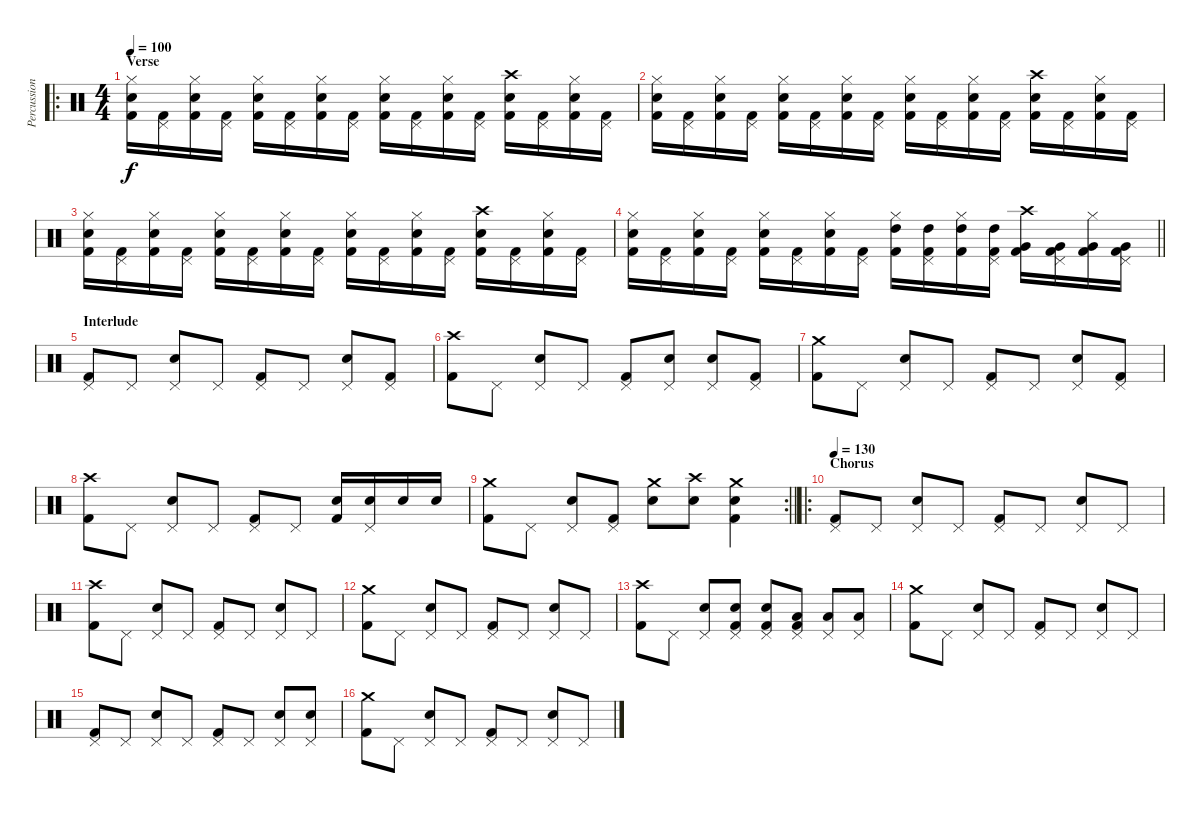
\track ("Percussion" "Percussion") {instrument percussion}
\staff {score}
\articulation defaults
\ro
\ts (4 4)
\section ("" "Verse")
\tempo 100
\clef neutral
\ks c
("Hi-Hat (closed)" "Snare (hit) 2" "Kick (hit) 2").16{dy f} ("Pedal Hi-Hat (hit)" "Kick (hit) 2").16 ("Hi-Hat (closed)" "Snare (hit) 2" "Kick (hit) 2").16 ("Pedal Hi-Hat (hit)" "Kick (hit) 2").16 ("Hi-Hat (closed)" "Snare (hit) 2" "Kick (hit) 2").16 ("Pedal Hi-Hat (hit)" "Kick (hit) 2").16 ("Hi-Hat (closed)" "Snare (hit) 2" "Kick (hit) 2").16 ("Pedal Hi-Hat (hit)" "Kick (hit) 2").16 ("Hi-Hat (closed)" "Snare (hit) 2" "Kick (hit) 2").16 ("Pedal Hi-Hat (hit)" "Kick (hit) 2").16 ("Hi-Hat (closed)" "Snare (hit) 2" "Kick (hit) 2").16 ("Pedal Hi-Hat (hit)" "Kick (hit) 2").16 ("Crash high (hit)" "Snare (hit) 2" "Kick (hit) 2").16 ("Pedal Hi-Hat (hit)" "Kick (hit) 2").16 ("Hi-Hat (closed)" "Snare (hit) 2" "Kick (hit) 2").16 ("Pedal Hi-Hat (hit)" "Kick (hit) 2").16 |
("Hi-Hat (closed)" "Snare (hit) 2" "Kick (hit) 2").16 ("Pedal Hi-Hat (hit)" "Kick (hit) 2").16 ("Hi-Hat (closed)" "Snare (hit) 2" "Kick (hit) 2").16 ("Pedal Hi-Hat (hit)" "Kick (hit) 2").16 ("Hi-Hat (closed)" "Snare (hit) 2" "Kick (hit) 2").16 ("Pedal Hi-Hat (hit)" "Kick (hit) 2").16 ("Hi-Hat (closed)" "Snare (hit) 2" "Kick (hit) 2").16 ("Pedal Hi-Hat (hit)" "Kick (hit) 2").16 ("Hi-Hat (closed)" "Snare (hit) 2" "Kick (hit) 2").16 ("Pedal Hi-Hat (hit)" "Kick (hit) 2").16 ("Hi-Hat (closed)" "Snare (hit) 2" "Kick (hit) 2").16 ("Pedal Hi-Hat (hit)" "Kick (hit) 2").16 ("Crash high (hit)" "Snare (hit) 2" "Kick (hit) 2").16 ("Pedal Hi-Hat (hit)" "Kick (hit) 2").16 ("Hi-Hat (closed)" "Snare (hit) 2" "Kick (hit) 2").16 ("Pedal Hi-Hat (hit)" "Kick (hit) 2").16 |
("Hi-Hat (closed)" "Snare (hit) 2" "Kick (hit) 2").16 ("Pedal Hi-Hat (hit)" "Kick (hit) 2").16 ("Hi-Hat (closed)" "Snare (hit) 2" "Kick (hit) 2").16 ("Pedal Hi-Hat (hit)" "Kick (hit) 2").16 ("Hi-Hat (closed)" "Snare (hit) 2" "Kick (hit) 2").16 ("Pedal Hi-Hat (hit)" "Kick (hit) 2").16 ("Hi-Hat (closed)" "Snare (hit) 2" "Kick (hit) 2").16 ("Pedal Hi-Hat (hit)" "Kick (hit) 2").16 ("Hi-Hat (closed)" "Snare (hit) 2" "Kick (hit) 2").16 ("Pedal Hi-Hat (hit)" "Kick (hit) 2").16 ("Hi-Hat (closed)" "Snare (hit) 2" "Kick (hit) 2").16 ("Pedal Hi-Hat (hit)" "Kick (hit) 2").16 ("Crash high (hit)" "Snare (hit) 2" "Kick (hit) 2").16 ("Pedal Hi-Hat (hit)" "Kick (hit) 2").16 ("Hi-Hat (closed)" "Snare (hit) 2" "Kick (hit) 2").16 ("Pedal Hi-Hat (hit)" "Kick (hit) 2").16 |
\barLineRight lightlight
("Hi-Hat (closed)" "Snare (hit) 2" "Kick (hit) 2").16 ("Pedal Hi-Hat (hit)" "Kick (hit) 2").16 ("Hi-Hat (closed)" "Snare (hit) 2" "Kick (hit) 2").16 ("Pedal Hi-Hat (hit)" "Kick (hit) 2").16 ("Hi-Hat (closed)" "Snare (hit) 2" "Kick (hit) 2").16 ("Pedal Hi-Hat (hit)" "Kick (hit) 2").16 ("Hi-Hat (closed)" "Snare (hit) 2" "Kick (hit) 2").16 ("Pedal Hi-Hat (hit)" "Kick (hit) 2").16 ("Hi-Hat (closed)" "High Tom (hit)" "Kick (hit) 2").16 ("Pedal Hi-Hat (hit)" "High Tom (hit)" "Kick (hit) 2").16 ("Hi-Hat (closed)" "High Tom (hit)" "Kick (hit) 2").16 ("Pedal Hi-Hat (hit)" "High Tom (hit)" "Kick (hit) 2").16 ("Crash high (hit)" "Very Low Tom (hit)" "Kick (hit) 2").16 ("Pedal Hi-Hat (hit)" "Very Low Tom (hit)" "Kick (hit) 2").16 ("Hi-Hat (closed)" "Very Low Tom (hit)" "Kick (hit) 2").16 ("Pedal Hi-Hat (hit)" "Very Low Tom (hit)" "Kick (hit) 2").16 |
\section ("" "Interlude")
("Pedal Hi-Hat (hit)" "Kick (hit) 2").8 "Pedal Hi-Hat (hit)".8 ("Pedal Hi-Hat (hit)" "Snare (hit) 2").8 "Pedal Hi-Hat (hit)".8 ("Pedal Hi-Hat (hit)" "Kick (hit) 2").8 "Pedal Hi-Hat (hit)".8 ("Pedal Hi-Hat (hit)" "Snare (hit) 2").8 ("Pedal Hi-Hat (hit)" "Kick (hit) 2").8 |
("Crash high (hit)" "Kick (hit) 2").8 "Pedal Hi-Hat (hit)".8 ("Pedal Hi-Hat (hit)" "Snare (hit) 2").8 "Pedal Hi-Hat (hit)".8 ("Pedal Hi-Hat (hit)" "Kick (hit) 2").8 ("Pedal Hi-Hat (hit)" "Snare (hit) 2").8 ("Pedal Hi-Hat (hit)" "Snare (hit) 2").8 ("Pedal Hi-Hat (hit)" "Kick (hit) 2").8 |
("Crash medium (hit)" "Kick (hit) 2").8 "Pedal Hi-Hat (hit)".8 ("Pedal Hi-Hat (hit)" "Snare (hit) 2").8 "Pedal Hi-Hat (hit)".8 ("Pedal Hi-Hat (hit)" "Kick (hit) 2").8 "Pedal Hi-Hat (hit)".8 ("Pedal Hi-Hat (hit)" "Snare (hit) 2").8 ("Pedal Hi-Hat (hit)" "Kick (hit) 2").8 |
("Crash high (hit)" "Kick (hit) 2").8 "Pedal Hi-Hat (hit)".8 ("Pedal Hi-Hat (hit)" "Snare (hit) 2").8 "Pedal Hi-Hat (hit)".8 ("Pedal Hi-Hat (hit)" "Kick (hit) 2").8 "Pedal Hi-Hat (hit)".8 ("Snare (hit) 2" "Kick (hit) 2").16 ("Pedal Hi-Hat (hit)" "Snare (hit) 2").16 "Snare (hit) 2".16 "Snare (hit) 2".16 |
\rc 2
\barLineRight lightlight
("Crash medium (hit)" "Kick (hit) 2").8 "Pedal Hi-Hat (hit)".8 ("Pedal Hi-Hat (hit)" "Snare (hit) 2").8 ("Pedal Hi-Hat (hit)" "Kick (hit) 2").8 ("Crash medium (hit)" "Snare (hit) 2").8 ("Crash high (hit)" "Snare (hit) 2").8 ("Crash medium (hit)" "Snare (hit) 2" "Kick (hit) 2").4 |
\ro
\section ("" "Chorus")
\tempo 130
("Pedal Hi-Hat (hit)" "Kick (hit) 2").8 "Pedal Hi-Hat (hit)".8 ("Pedal Hi-Hat (hit)" "Snare (hit) 2").8 "Pedal Hi-Hat (hit)".8 ("Pedal Hi-Hat (hit)" "Kick (hit) 2").8 "Pedal Hi-Hat (hit)".8 ("Pedal Hi-Hat (hit)" "Snare (hit) 2").8 "Pedal Hi-Hat (hit)".8 |
("Crash high (hit)" "Kick (hit) 2").8 "Pedal Hi-Hat (hit)".8 ("Pedal Hi-Hat (hit)" "Snare (hit) 2").8 "Pedal Hi-Hat (hit)".8 ("Pedal Hi-Hat (hit)" "Kick (hit) 2").8 "Pedal Hi-Hat (hit)".8 ("Pedal Hi-Hat (hit)" "Snare (hit) 2").8 "Pedal Hi-Hat (hit)".8 |
("Crash medium (hit)" "Kick (hit) 2").8 "Pedal Hi-Hat (hit)".8 ("Pedal Hi-Hat (hit)" "Snare (hit) 2").8 "Pedal Hi-Hat (hit)".8 ("Pedal Hi-Hat (hit)" "Kick (hit) 2").8 "Pedal Hi-Hat (hit)".8 ("Pedal Hi-Hat (hit)" "Snare (hit) 2").8 "Pedal Hi-Hat (hit)".8 |
("Crash high (hit)" "Kick (hit) 2").8 "Pedal Hi-Hat (hit)".8 ("Pedal Hi-Hat (hit)" "Snare (hit) 2").8 ("Pedal Hi-Hat (hit)" "Snare (hit) 2" "Kick (hit) 2").8 ("Pedal Hi-Hat (hit)" "Snare (hit) 2" "Kick (hit) 2").8 ("Pedal Hi-Hat (hit)" "Low Tom (hit)" "Kick (hit) 2").8 ("Pedal Hi-Hat (hit)" "Low Tom (hit)").8 ("Pedal Hi-Hat (hit)" "Low Tom (hit)").8 |
("Crash medium (hit)" "Kick (hit) 2").8 "Pedal Hi-Hat (hit)".8 ("Pedal Hi-Hat (hit)" "Snare (hit) 2").8 "Pedal Hi-Hat (hit)".8 ("Pedal Hi-Hat (hit)" "Kick (hit) 2").8 "Pedal Hi-Hat (hit)".8 ("Pedal Hi-Hat (hit)" "Snare (hit) 2").8 "Pedal Hi-Hat (hit)".8 |
("Pedal Hi-Hat (hit)" "Kick (hit) 2").8 "Pedal Hi-Hat (hit)".8 ("Pedal Hi-Hat (hit)" "Snare (hit) 2").8 "Pedal Hi-Hat (hit)".8 ("Pedal Hi-Hat (hit)" "Kick (hit) 2").8 "Pedal Hi-Hat (hit)".8 ("Pedal Hi-Hat (hit)" "Snare (hit) 2").8 ("Pedal Hi-Hat (hit)" "Snare (hit) 2").8 |
("Crash medium (hit)" "Kick (hit) 2").8 "Pedal Hi-Hat (hit)".8 ("Pedal Hi-Hat (hit)" "Snare (hit) 2").8 "Pedal Hi-Hat (hit)".8 ("Pedal Hi-Hat (hit)" "Kick (hit) 2").8 "Pedal Hi-Hat (hit)".8 ("Pedal Hi-Hat (hit)" "Snare (hit) 2").8 "Pedal Hi-Hat (hit)".8
